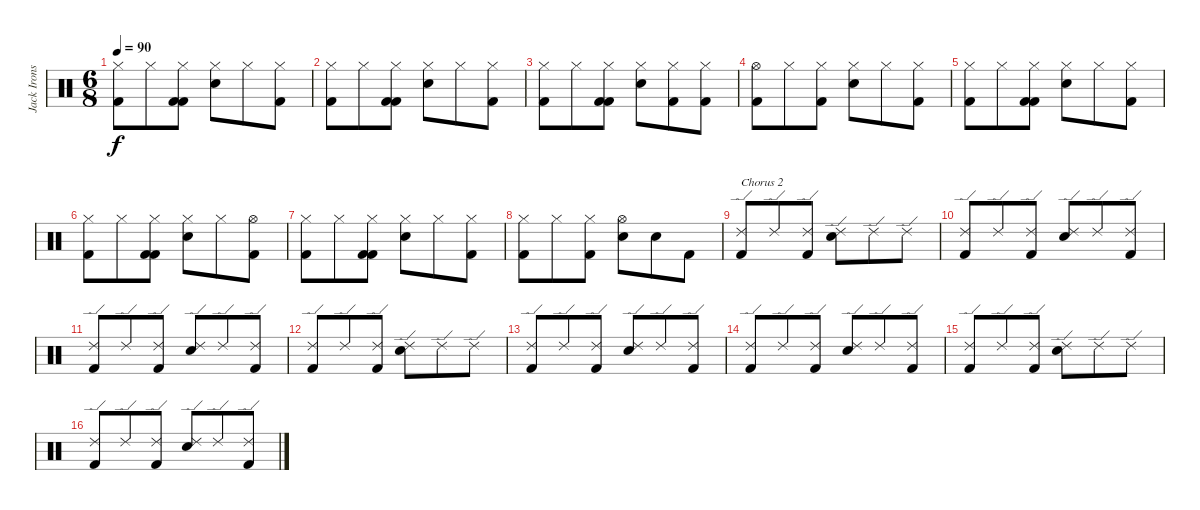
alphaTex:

\track ("Jack Irons" "Jack Irons") {instrument percussion}
\staff {score}
\articulation defaults
\ts (6 8)
\tempo 90
\clef neutral
\ks c
("Hi-Hat (closed)" "Kick (hit) 2").8{dy f} "Hi-Hat (closed)".8 ("Hi-Hat (closed)" "Kick (hit) 2" "Kick (hit) 2").8 ("Hi-Hat (closed)" "Snare (hit) 2").8 "Hi-Hat (closed)".8 ("Hi-Hat (closed)" "Kick (hit) 2").8 |
("Hi-Hat (closed)" "Kick (hit) 2").8 "Hi-Hat (closed)".8 ("Hi-Hat (closed)" "Kick (hit) 2" "Kick (hit) 2").8 ("Hi-Hat (closed)" "Snare (hit) 2").8 "Hi-Hat (closed)".8 ("Hi-Hat (closed)" "Kick (hit) 2").8 |
("Hi-Hat (closed)" "Kick (hit) 2").8 "Hi-Hat (closed)".8 ("Hi-Hat (closed)" "Kick (hit) 2" "Kick (hit) 2").8 ("Hi-Hat (closed)" "Snare (hit) 2").8 ("Hi-Hat (closed)" "Kick (hit) 2").8 ("Hi-Hat (closed)" "Kick (hit) 2").8 |
("Hi-Hat (open)" "Kick (hit) 2").8 "Hi-Hat (closed)".8 ("Hi-Hat (closed)" "Kick (hit) 2").8 ("Hi-Hat (closed)" "Snare (hit) 2").8 "Hi-Hat (closed)".8 ("Hi-Hat (closed)" "Kick (hit) 2").8 |
("Hi-Hat (closed)" "Kick (hit) 2").8 "Hi-Hat (closed)".8 ("Hi-Hat (closed)" "Kick (hit) 2" "Kick (hit) 2").8 ("Hi-Hat (closed)" "Snare (hit) 2").8 "Hi-Hat (closed)".8 ("Hi-Hat (closed)" "Kick (hit) 2").8 |
("Hi-Hat (closed)" "Kick (hit) 2").8 "Hi-Hat (closed)".8 ("Hi-Hat (closed)" "Kick (hit) 2" "Kick (hit) 2").8 ("Hi-Hat (closed)" "Snare (hit) 2").8 "Hi-Hat (closed)".8 ("Hi-Hat (open)" "Kick (hit) 2").8 |
("Hi-Hat (closed)" "Kick (hit) 2").8 "Hi-Hat (closed)".8 ("Hi-Hat (closed)" "Kick (hit) 2" "Kick (hit) 2").8 ("Hi-Hat (closed)" "Snare (hit) 2").8 "Hi-Hat (closed)".8 ("Hi-Hat (closed)" "Kick (hit) 2").8 |
("Hi-Hat (closed)" "Kick (hit) 2").8 "Hi-Hat (closed)".8 ("Hi-Hat (closed)" "Kick (hit) 2").8 ("Hi-Hat (open)" "Snare (hit) 2").8 "Snare (hit) 2".8 "Kick (hit) 2".8 |
("Ride (edge) 2" "Kick (hit) 2").8{txt "Chorus 2"} "Ride (edge) 2".8 ("Ride (edge) 2" "Kick (hit) 2").8 ("Ride (edge) 2" "Snare (hit) 2").8 "Ride (edge) 2".8 "Ride (edge) 2".8 |
("Ride (edge) 2" "Kick (hit) 2").8 "Ride (edge) 2".8 ("Ride (edge) 2" "Kick (hit) 2").8 ("Ride (edge) 2" "Snare (hit) 2").8 "Ride (edge) 2".8 ("Ride (edge) 2" "Kick (hit) 2").8 |
("Ride (edge) 2" "Kick (hit) 2").8 "Ride (edge) 2".8 ("Ride (edge) 2" "Kick (hit) 2").8 ("Ride (edge) 2" "Snare (hit) 2").8 "Ride (edge) 2".8 ("Ride (edge) 2" "Kick (hit) 2").8 |
("Ride (edge) 2" "Kick (hit) 2").8 "Ride (edge) 2".8 ("Ride (edge) 2" "Kick (hit) 2").8 ("Ride (edge) 2" "Snare (hit) 2").8 "Ride (edge) 2".8 "Ride (edge) 2".8 |
("Ride (edge) 2" "Kick (hit) 2").8 "Ride (edge) 2".8 ("Ride (edge) 2" "Kick (hit) 2").8 ("Ride (edge) 2" "Snare (hit) 2").8 "Ride (edge) 2".8 ("Ride (edge) 2" "Kick (hit) 2").8 |
("Ride (edge) 2" "Kick (hit) 2").8 "Ride (edge) 2".8 ("Ride (edge) 2" "Kick (hit) 2").8 ("Ride (edge) 2" "Snare (hit) 2").8 "Ride (edge) 2".8 ("Ride (edge) 2" "Kick (hit) 2").8 |
("Ride (edge) 2" "Kick (hit) 2").8 "Ride (edge) 2".8 ("Ride (edge) 2" "Kick (hit) 2").8 ("Ride (edge) 2" "Snare (hit) 2").8 "Ride (edge) 2".8 "Ride (edge) 2".8 |
("Ride (edge) 2" "Kick (hit) 2").8 "Ride (edge) 2".8 ("Ride (edge) 2" "Kick (hit) 2").8 ("Ride (edge) 2" "Snare (hit) 2").8 "Ride (edge) 2".8 ("Ride (edge) 2" "Kick (hit) 2").8
